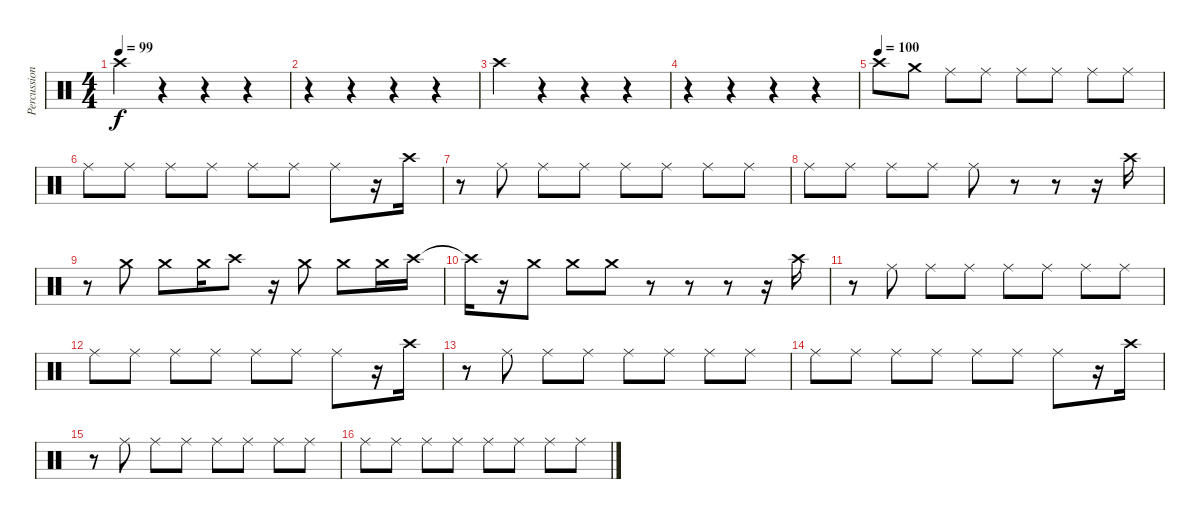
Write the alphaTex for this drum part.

\track ("Percussion2" "Percussion") {instrument percussion}
\staff {score}
\articulation defaults
\ts (4 4)
\tempo 99
\clef neutral
\ks c "Crash high (hit)".4{dy f}
r.4 r.4 r.4 |
r.4 r.4 r.4 r.4 |
"Crash high (hit)".4 r.4 r.4 r.4 |
r.4 r.4 r.4 r.4 |
\tempo (100)
"Crash high (hit)".8 "Crash medium (hit)".8 "Ride (middle)".8 "Ride (middle)".8 "Ride (middle)".8 "Ride (middle)".8 "Ride (middle)".8 "Ride (middle)".8 |
"Ride (middle)".8 "Ride (middle)".8 "Ride (middle)".8 "Ride (middle)".8 "Ride (middle)".8 "Ride (middle)".8 "Ride (middle)".8 r.16 "Crash high (hit)".16 |
r.8 "Ride (middle)".8 "Ride (middle)".8 "Ride (middle)".8 "Ride (middle)".8 "Ride (middle)".8 "Ride (middle)".8 "Ride (middle)".8 |
"Ride (middle)".8 "Ride (middle)".8 "Ride (middle)".8 "Ride (middle)".8 "Ride (middle)".8 r.8 r.8 r.16 "Crash high (hit)".16 |
r.8 "Crash medium (hit)".8 "Crash medium (hit)".8 "Crash medium (hit)".16 "Crash high (hit)".8 r.16 "Crash medium (hit)".8 "Crash medium (hit)".8 "Crash medium (hit)".16 "Crash high (hit)".16 |
"Crash high (hit)"{t}.16 r.16 "Crash medium (hit)".8 "Crash medium (hit)".8 "Crash medium (hit)".8 r.8 r.8 r.8 r.16 "Crash high (hit)".16 |
r.8 "Ride (middle)".8 "Ride (middle)".8 "Ride (middle)".8 "Ride (middle)".8 "Ride (middle)".8 "Ride (middle)".8 "Ride (middle)".8 |
"Ride (middle)".8 "Ride (middle)".8 "Ride (middle)".8 "Ride (middle)".8 "Ride (middle)".8 "Ride (middle)".8 "Ride (middle)".8 r.16 "Crash high (hit)".16 |
r.8 "Ride (middle)".8 "Ride (middle)".8 "Ride (middle)".8 "Ride (middle)".8 "Ride (middle)".8 "Ride (middle)".8 "Ride (middle)".8 |
"Ride (middle)".8 "Ride (middle)".8 "Ride (middle)".8 "Ride (middle)".8 "Ride (middle)".8 "Ride (middle)".8 "Ride (middle)".8 r.16 "Crash high (hit)".16 |
r.8 "Ride (middle)".8 "Ride (middle)".8 "Ride (middle)".8 "Ride (middle)".8 "Ride (middle)".8 "Ride (middle)".8 "Ride (middle)".8 |
"Ride (middle)".8 "Ride (middle)".8 "Ride (middle)".8 "Ride (middle)".8 "Ride (middle)".8 "Ride (middle)".8 "Ride (middle)".8 "Ride (middle)".8
